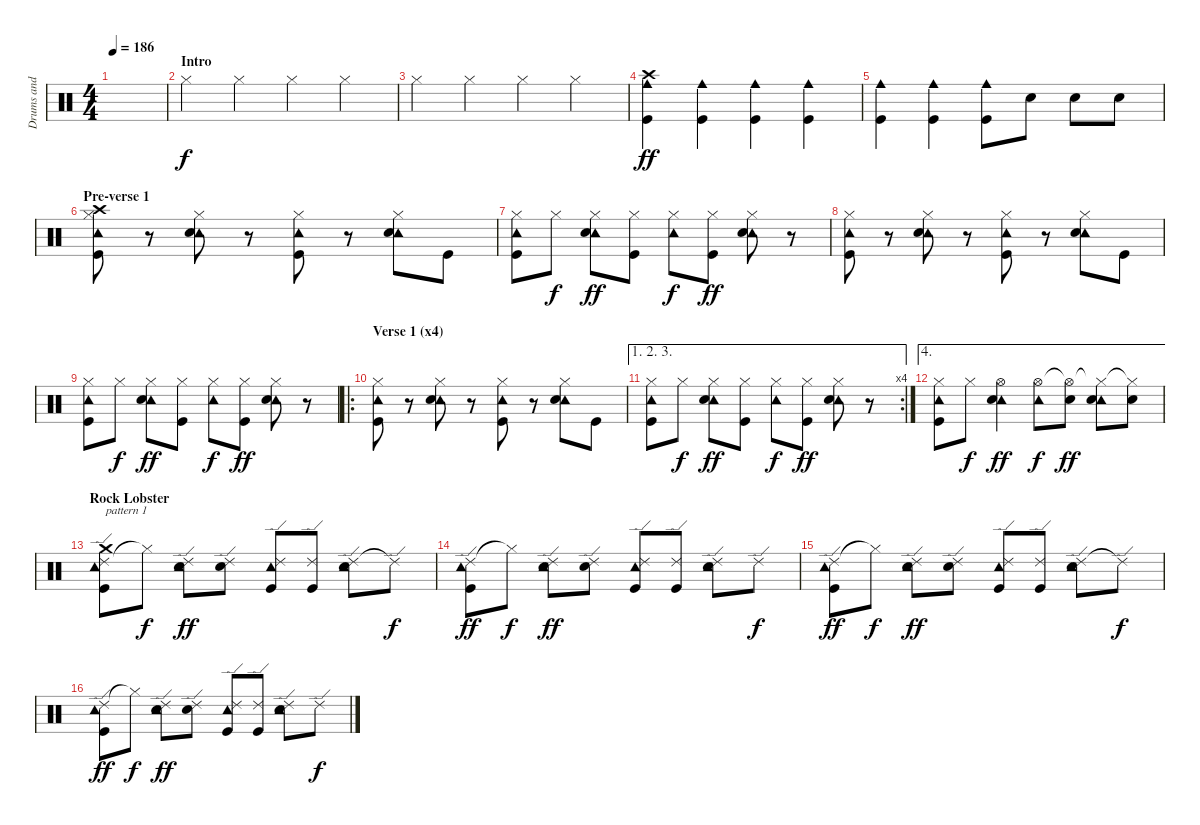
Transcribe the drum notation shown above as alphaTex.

\track ("Drums and Percs" "Drums and ") {instrument percussion}
\staff {score}
\articulation defaults
\ts (4 4)
\tempo 186
\clef neutral
\ks c
|
\section ("" "Intro")
"Hi-Hat (closed)".4 "Hi-Hat (closed)".4 "Hi-Hat (closed)".4 "Hi-Hat (closed)".4 |
"Hi-Hat (closed)".4 "Hi-Hat (closed)".4 "Hi-Hat (closed)".4 "Hi-Hat (closed)".4 |
("Cowbell medium (hit)" "Crash high (hit)" "Kick (hit)").4{dy ff} ("Cowbell medium (hit)" "Kick (hit)").4 ("Cowbell medium (hit)" "Kick (hit)").4 ("Cowbell medium (hit)" "Kick (hit)").4 |
("Cowbell medium (hit)" "Kick (hit)").4 ("Cowbell medium (hit)" "Kick (hit)").4 ("Cowbell medium (hit)" "Kick (hit)").8 "Electric Snare (hit)".8 "Electric Snare (hit)".8 "Electric Snare (hit)".8 |
\section ("" "Pre-verse 1")
("Hi-Hat (closed)" "Tambourine (hit)" "Crash high (hit)" "Kick (hit)").8 r.8 ("Hi-Hat (closed)" "Tambourine (hit)" "Electric Snare (hit)").8 r.8 ("Hi-Hat (closed)" "Tambourine (hit)" "Kick (hit)").8 r.8 ("Hi-Hat (closed)" "Tambourine (hit)" "Electric Snare (hit)").8 "Kick (hit)".8 |
("Hi-Hat (closed)" "Tambourine (hit)" "Kick (hit)").8 "Hi-Hat (closed)".8{dy f} ("Hi-Hat (closed)" "Tambourine (hit)" "Electric Snare (hit)").8{dy ff} ("Hi-Hat (closed)" "Kick (hit)").8 ("Hi-Hat (closed)" "Tambourine (hit)").8{dy f} ("Hi-Hat (closed)" "Kick (hit)").8{dy ff} ("Hi-Hat (closed)" "Tambourine (hit)" "Electric Snare (hit)").8 r.8 |
("Hi-Hat (closed)" "Tambourine (hit)" "Kick (hit)").8 r.8 ("Hi-Hat (closed)" "Tambourine (hit)" "Electric Snare (hit)").8 r.8 ("Hi-Hat (closed)" "Tambourine (hit)" "Kick (hit)").8 r.8 ("Hi-Hat (closed)" "Tambourine (hit)" "Electric Snare (hit)").8 "Kick (hit)".8 |
("Hi-Hat (closed)" "Tambourine (hit)" "Kick (hit)").8 "Hi-Hat (closed)".8{dy f} ("Hi-Hat (closed)" "Tambourine (hit)" "Electric Snare (hit)").8{dy ff} ("Hi-Hat (closed)" "Kick (hit)").8 ("Hi-Hat (closed)" "Tambourine (hit)").8{dy f} ("Hi-Hat (closed)" "Kick (hit)").8{dy ff} ("Hi-Hat (closed)" "Tambourine (hit)" "Electric Snare (hit)").8 r.8 |
\ro
\section ("" "Verse 1 (x4)")
("Hi-Hat (closed)" "Tambourine (hit)" "Kick (hit)").8 r.8 ("Hi-Hat (closed)" "Tambourine (hit)" "Electric Snare (hit)").8 r.8 ("Hi-Hat (closed)" "Tambourine (hit)" "Kick (hit)").8 r.8 ("Hi-Hat (closed)" "Tambourine (hit)" "Electric Snare (hit)").8 "Kick (hit)".8 |
\ae (1 2 3)
\rc 4
("Hi-Hat (closed)" "Tambourine (hit)" "Kick (hit)").8 "Hi-Hat (closed)".8{dy f} ("Hi-Hat (closed)" "Tambourine (hit)" "Electric Snare (hit)").8{dy ff} ("Hi-Hat (closed)" "Kick (hit)").8 ("Hi-Hat (closed)" "Tambourine (hit)").8{dy f} ("Hi-Hat (closed)" "Kick (hit)").8{dy ff} ("Hi-Hat (closed)" "Tambourine (hit)" "Electric Snare (hit)").8 r.8 |
\ae 4
("Hi-Hat (closed)" "Tambourine (hit)" "Kick (hit)").8 "Hi-Hat (closed)".8{dy f} ("Hi-Hat (open)" "Tambourine (hit)" "Electric Snare (hit)").4{dy ff} ("Hi-Hat (open)" "Tambourine (hit)").8{dy f} ("Hi-Hat (open)"{t} "Electric Snare (hit)").8{dy ff} ("Hi-Hat (closed)"{t} "Tambourine (hit)" "Electric Snare (hit)").8 ("Hi-Hat (closed)"{t} "Electric Snare (hit)").8 |
\section ("" "Rock Lobster")
("Ride (edge) 2" "Tambourine (hit)" "Crash medium (hit)" "Kick (hit)").8{txt "pattern 1"} "Hi-Hat (closed)"{t}.8{dy f} ("Ride (edge) 2" "Tambourine (hit)" "Electric Snare (hit)").8{dy ff} ("Ride (edge) 2" "Electric Snare (hit)").8 ("Ride (edge) 2" "Tambourine (hit)" "Kick (hit)").8 ("Ride (edge) 2" "Kick (hit)").8 ("Ride (edge) 2" "Tambourine (hit)" "Electric Snare (hit)").8 "Ride (edge) 2"{t}.8{dy f} |
("Ride (edge) 2" "Tambourine (hit)" "Kick (hit)").8{dy ff} "Hi-Hat (closed)"{t}.8{dy f} ("Ride (edge) 2" "Tambourine (hit)" "Electric Snare (hit)").8{dy ff} ("Ride (edge) 2" "Electric Snare (hit)").8 ("Ride (edge) 2" "Tambourine (hit)" "Kick (hit)").8 ("Ride (edge) 2" "Kick (hit)").8 ("Ride (edge) 2" "Tambourine (hit)" "Electric Snare (hit)").8 "Ride (edge) 2".8{dy f} |
("Ride (edge) 2" "Tambourine (hit)" "Kick (hit)").8{dy ff} "Hi-Hat (closed)"{t}.8{dy f} ("Ride (edge) 2" "Tambourine (hit)" "Electric Snare (hit)").8{dy ff} ("Ride (edge) 2" "Electric Snare (hit)").8 ("Ride (edge) 2" "Tambourine (hit)" "Kick (hit)").8 ("Ride (edge) 2" "Kick (hit)").8 ("Ride (edge) 2" "Tambourine (hit)" "Electric Snare (hit)").8 "Ride (edge) 2"{t}.8{dy f} |
("Ride (edge) 2" "Tambourine (hit)" "Kick (hit)").8{dy ff} "Hi-Hat (closed)"{t}.8{dy f} ("Ride (edge) 2" "Tambourine (hit)" "Electric Snare (hit)").8{dy ff} ("Ride (edge) 2" "Electric Snare (hit)").8 ("Ride (edge) 2" "Tambourine (hit)" "Kick (hit)").8 ("Ride (edge) 2" "Kick (hit)").8 ("Ride (edge) 2" "Tambourine (hit)" "Electric Snare (hit)").8 "Ride (edge) 2".8{dy f}
